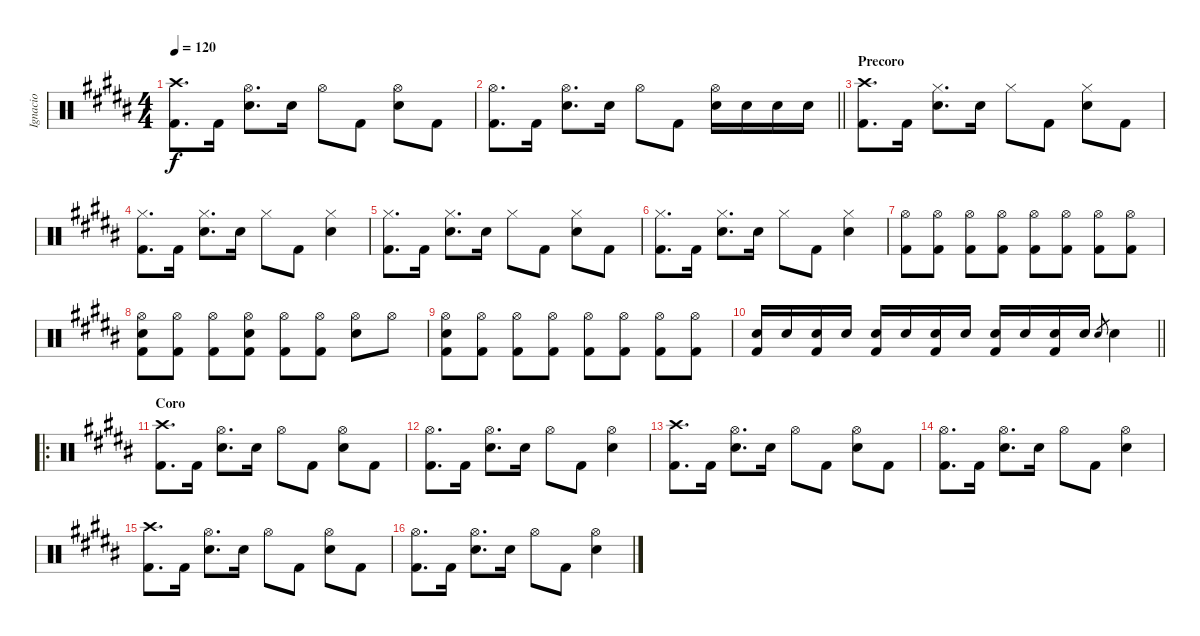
\track ("Ignacio" "Ignacio") {instrument percussion}
\staff {score}
\articulation defaults
\ts (4 4)
\tempo 120
\clef neutral
\ks b
("Crash high (hit)" "Kick (hit) 2").8{d dy f} "Kick (hit) 2".16 ("Hi-Hat (open)" "Snare (hit) 2").8{d} "Snare (hit) 2".16 "Hi-Hat (open)".8 "Kick (hit) 2".8 ("Hi-Hat (open)" "Snare (hit) 2").8 "Kick (hit) 2".8 |
\barLineRight lightlight
("Hi-Hat (open)" "Kick (hit) 2").8{d} "Kick (hit) 2".16 ("Hi-Hat (open)" "Snare (hit) 2").8{d} "Snare (hit) 2".16 "Hi-Hat (open)".8 "Kick (hit) 2".8 ("Hi-Hat (open)" "Snare (hit) 2").16 "Snare (hit) 2".16 "Snare (hit) 2".16 "Snare (hit) 2".16 |
\section ("" "Precoro")
("Crash high (hit)" "Kick (hit) 2").8{d} "Kick (hit) 2".16 ("Hi-Hat (closed)" "Snare (hit) 2").8{d} "Snare (hit) 2".16 "Hi-Hat (closed)".8 "Kick (hit) 2".8 ("Hi-Hat (closed)" "Snare (hit) 2").8 "Kick (hit) 2".8 |
("Hi-Hat (closed)" "Kick (hit) 2").8{d} "Kick (hit) 2".16 ("Hi-Hat (closed)" "Snare (hit) 2").8{d} "Snare (hit) 2".16 "Hi-Hat (closed)".8 "Kick (hit) 2".8 ("Hi-Hat (closed)" "Snare (hit) 2").4 |
("Hi-Hat (closed)" "Kick (hit) 2").8{d} "Kick (hit) 2".16 ("Hi-Hat (closed)" "Snare (hit) 2").8{d} "Snare (hit) 2".16 "Hi-Hat (closed)".8 "Kick (hit) 2".8 ("Hi-Hat (closed)" "Snare (hit) 2").8 "Kick (hit) 2".8 |
("Hi-Hat (closed)" "Kick (hit) 2").8{d} "Kick (hit) 2".16 ("Hi-Hat (closed)" "Snare (hit) 2").8{d} "Snare (hit) 2".16 "Hi-Hat (closed)".8 "Kick (hit) 2".8 ("Hi-Hat (closed)" "Snare (hit) 2").4 |
("Hi-Hat (open)" "Kick (hit) 2").8 ("Hi-Hat (open)" "Kick (hit) 2").8 ("Hi-Hat (open)" "Kick (hit) 2").8 ("Hi-Hat (open)" "Kick (hit) 2").8 ("Hi-Hat (open)" "Kick (hit) 2").8 ("Hi-Hat (open)" "Kick (hit) 2").8 ("Hi-Hat (open)" "Kick (hit) 2").8 ("Hi-Hat (open)" "Kick (hit) 2").8 |
("Hi-Hat (open)" "Snare (hit) 2" "Kick (hit) 2").8 ("Hi-Hat (open)" "Kick (hit) 2").8 ("Hi-Hat (open)" "Kick (hit) 2").8 ("Hi-Hat (open)" "Snare (hit) 2" "Kick (hit) 2").8 ("Hi-Hat (open)" "Kick (hit) 2").8 ("Hi-Hat (open)" "Kick (hit) 2").8 ("Hi-Hat (open)" "Snare (hit) 2").8 "Hi-Hat (open)".8 |
("Hi-Hat (open)" "Snare (hit) 2" "Kick (hit) 2").8 ("Hi-Hat (open)" "Kick (hit) 2").8 ("Hi-Hat (open)" "Kick (hit) 2").8 ("Hi-Hat (open)" "Kick (hit) 2").8 ("Hi-Hat (open)" "Kick (hit) 2").8 ("Hi-Hat (open)" "Kick (hit) 2").8 ("Hi-Hat (open)" "Kick (hit) 2").8 ("Hi-Hat (open)" "Kick (hit) 2").8 |
\barLineRight lightlight
("Snare (hit) 2" "Kick (hit) 2").16 "Snare (hit) 2".16 ("Snare (hit) 2" "Kick (hit) 2").16 "Snare (hit) 2".16 ("Snare (hit) 2" "Kick (hit) 2").16 "Snare (hit) 2".16 ("Snare (hit) 2" "Kick (hit) 2").16 "Snare (hit) 2".16 ("Snare (hit) 2" "Kick (hit) 2").16 "Snare (hit) 2".16 ("Snare (hit) 2" "Kick (hit) 2").16 "Snare (hit) 2".16 "Snare (hit) 2".8{gr} "Snare (hit) 2".4 |
\ro
\section ("" "Coro")
("Crash high (hit)" "Kick (hit) 2").8{d} "Kick (hit) 2".16 ("Hi-Hat (open)" "Snare (hit) 2").8{d} "Snare (hit) 2".16 "Hi-Hat (open)".8 "Kick (hit) 2".8 ("Hi-Hat (open)" "Snare (hit) 2").8 "Kick (hit) 2".8 |
("Hi-Hat (open)" "Kick (hit) 2").8{d} "Kick (hit) 2".16 ("Hi-Hat (open)" "Snare (hit) 2").8{d} "Snare (hit) 2".16 "Hi-Hat (open)".8 "Kick (hit) 2".8 ("Hi-Hat (open)" "Snare (hit) 2").4 |
("Crash high (hit)" "Kick (hit) 2").8{d} "Kick (hit) 2".16 ("Hi-Hat (open)" "Snare (hit) 2").8{d} "Snare (hit) 2".16 "Hi-Hat (open)".8 "Kick (hit) 2".8 ("Hi-Hat (open)" "Snare (hit) 2").8 "Kick (hit) 2".8 |
("Hi-Hat (open)" "Kick (hit) 2").8{d} "Kick (hit) 2".16 ("Hi-Hat (open)" "Snare (hit) 2").8{d} "Snare (hit) 2".16 "Hi-Hat (open)".8 "Kick (hit) 2".8 ("Hi-Hat (open)" "Snare (hit) 2").4 |
("Crash high (hit)" "Kick (hit) 2").8{d} "Kick (hit) 2".16 ("Hi-Hat (open)" "Snare (hit) 2").8{d} "Snare (hit) 2".16 "Hi-Hat (open)".8 "Kick (hit) 2".8 ("Hi-Hat (open)" "Snare (hit) 2").8 "Kick (hit) 2".8 |
("Hi-Hat (open)" "Kick (hit) 2").8{d} "Kick (hit) 2".16 ("Hi-Hat (open)" "Snare (hit) 2").8{d} "Snare (hit) 2".16 "Hi-Hat (open)".8 "Kick (hit) 2".8 ("Hi-Hat (open)" "Snare (hit) 2").4
